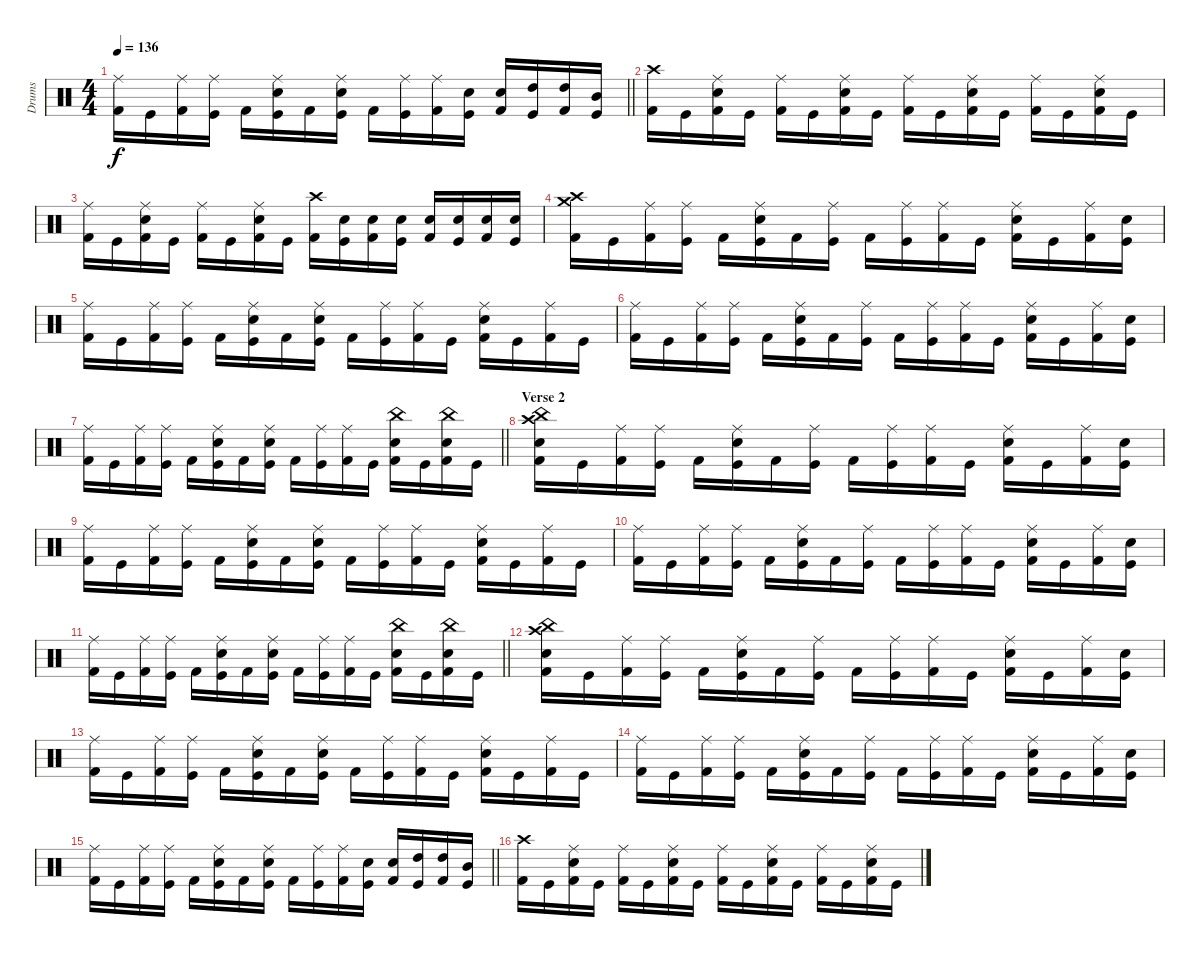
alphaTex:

\track ("Drums" "Drums") {instrument percussion}
\staff {score}
\articulation defaults
\ts (4 4)
\tempo 136
\clef neutral
\barLineRight lightlight
\ks c
("Kick (hit) 2" "Ride (middle)").16{dy f} "Kick (hit)".16 ("Kick (hit) 2" "Ride (middle)").16 ("Kick (hit)" "Ride (middle)").16 "Kick (hit) 2".16 ("Kick (hit)" "Snare (hit) 2" "Ride (middle)").16 "Kick (hit) 2".16 ("Kick (hit)" "Snare (hit) 2" "Ride (middle)").16 "Kick (hit) 2".16 ("Kick (hit)" "Ride (middle)").16 ("Kick (hit) 2" "Ride (middle)").16 ("Kick (hit)" "Snare (hit) 2").16 ("Kick (hit) 2" "Snare (hit) 2").16 ("Kick (hit)" "High Tom (hit)").16 ("Kick (hit) 2" "High Tom (hit)").16 ("Kick (hit)" "Mid Tom (hit)").16 |
("Kick (hit) 2" "Crash high (hit)").16 "Kick (hit)".16 ("Kick (hit) 2" "Snare (hit) 2" "Ride (middle)").16 "Kick (hit)".16 ("Kick (hit) 2" "Ride (middle)").16 "Kick (hit)".16 ("Kick (hit) 2" "Snare (hit) 2" "Ride (middle)").16 "Kick (hit)".16 ("Kick (hit) 2" "Ride (middle)").16 "Kick (hit)".16 ("Kick (hit) 2" "Snare (hit) 2" "Ride (middle)").16 "Kick (hit)".16 ("Kick (hit) 2" "Ride (middle)").16 "Kick (hit)".16 ("Kick (hit) 2" "Snare (hit) 2" "Ride (middle)").16 "Kick (hit)".16 |
("Kick (hit) 2" "Ride (middle)").16 "Kick (hit)".16 ("Kick (hit) 2" "Snare (hit) 2" "Ride (middle)").16 "Kick (hit)".16 ("Kick (hit) 2" "Ride (middle)").16 "Kick (hit)".16 ("Kick (hit) 2" "Snare (hit) 2" "Ride (middle)").16 "Kick (hit)".16 ("Kick (hit) 2" "Crash high (hit)").16 ("Kick (hit)" "Snare (hit) 2").16 ("Kick (hit) 2" "Snare (hit) 2").16 ("Kick (hit)" "Snare (hit) 2").16 ("Kick (hit) 2" "Snare (hit) 2").16 ("Kick (hit)" "Snare (hit) 2").16 ("Kick (hit) 2" "Snare (hit) 2").16 ("Kick (hit)" "Snare (hit) 2").16 |
("Kick (hit) 2" "Crash high (hit)" "Crash medium (hit)").16 "Kick (hit)".16 ("Kick (hit) 2" "Ride (middle)").16 ("Kick (hit)" "Ride (middle)").16 "Kick (hit) 2".16 ("Kick (hit)" "Snare (hit) 2" "Ride (middle)").16 "Kick (hit) 2".16 ("Kick (hit)" "Ride (middle)").16 "Kick (hit) 2".16 ("Kick (hit)" "Ride (middle)").16 ("Kick (hit) 2" "Ride (middle)").16 "Kick (hit)".16 ("Kick (hit) 2" "Snare (hit) 2" "Ride (middle)").16 "Kick (hit)".16 ("Kick (hit) 2" "Ride (middle)").16 ("Kick (hit)" "Snare (hit) 2").16 |
("Kick (hit) 2" "Ride (middle)").16 "Kick (hit)".16 ("Kick (hit) 2" "Ride (middle)").16 ("Kick (hit)" "Ride (middle)").16 "Kick (hit) 2".16 ("Kick (hit)" "Snare (hit) 2" "Ride (middle)").16 "Kick (hit) 2".16 ("Kick (hit)" "Snare (hit) 2" "Ride (middle)").16 "Kick (hit) 2".16 ("Kick (hit)" "Ride (middle)").16 ("Kick (hit) 2" "Ride (middle)").16 "Kick (hit)".16 ("Kick (hit) 2" "Snare (hit) 2" "Ride (middle)").16 "Kick (hit)".16 ("Kick (hit) 2" "Ride (middle)").16 "Kick (hit)".16 |
("Kick (hit) 2" "Ride (middle)").16 "Kick (hit)".16 ("Kick (hit) 2" "Ride (middle)").16 ("Kick (hit)" "Ride (middle)").16 "Kick (hit) 2".16 ("Kick (hit)" "Snare (hit) 2" "Ride (middle)").16 "Kick (hit) 2".16 ("Kick (hit)" "Ride (middle)").16 "Kick (hit) 2".16 ("Kick (hit)" "Ride (middle)").16 ("Kick (hit) 2" "Ride (middle)").16 "Kick (hit)".16 ("Kick (hit) 2" "Snare (hit) 2" "Ride (middle)").16 "Kick (hit)".16 ("Kick (hit) 2" "Ride (middle)").16 ("Kick (hit)" "Snare (hit) 2").16 |
\barLineRight lightlight
("Kick (hit) 2" "Ride (middle)").16 "Kick (hit)".16 ("Kick (hit) 2" "Ride (middle)").16 ("Kick (hit)" "Ride (middle)").16 "Kick (hit) 2".16 ("Kick (hit)" "Snare (hit) 2" "Ride (middle)").16 "Kick (hit) 2".16 ("Kick (hit)" "Snare (hit) 2" "Ride (middle)").16 "Kick (hit) 2".16 ("Kick (hit)" "Ride (middle)").16 ("Kick (hit) 2" "Ride (middle)").16 "Kick (hit)".16 ("Kick (hit) 2" "Snare (hit) 2" "China (hit)").16 "Kick (hit)".16 ("Kick (hit) 2" "Snare (hit) 2" "China (hit)").16 "Kick (hit)".16 |
\section ("" "Verse 2")
("Kick (hit) 2" "Snare (hit) 2" "Crash high (hit)" "China (hit)").16 "Kick (hit)".16 ("Kick (hit) 2" "Ride (middle)").16 ("Kick (hit)" "Ride (middle)").16 "Kick (hit) 2".16 ("Kick (hit)" "Snare (hit) 2" "Ride (middle)").16 "Kick (hit) 2".16 ("Kick (hit)" "Ride (middle)").16 "Kick (hit) 2".16 ("Kick (hit)" "Ride (middle)").16 ("Kick (hit) 2" "Ride (middle)").16 "Kick (hit)".16 ("Kick (hit) 2" "Snare (hit) 2" "Ride (middle)").16 "Kick (hit)".16 ("Kick (hit) 2" "Ride (middle)").16 ("Kick (hit)" "Snare (hit) 2").16 |
("Kick (hit) 2" "Ride (middle)").16 "Kick (hit)".16 ("Kick (hit) 2" "Ride (middle)").16 ("Kick (hit)" "Ride (middle)").16 "Kick (hit) 2".16 ("Kick (hit)" "Snare (hit) 2" "Ride (middle)").16 "Kick (hit) 2".16 ("Kick (hit)" "Snare (hit) 2" "Ride (middle)").16 "Kick (hit) 2".16 ("Kick (hit)" "Ride (middle)").16 ("Kick (hit) 2" "Ride (middle)").16 "Kick (hit)".16 ("Kick (hit) 2" "Snare (hit) 2" "Ride (middle)").16 "Kick (hit)".16 ("Kick (hit) 2" "Ride (middle)").16 "Kick (hit)".16 |
("Kick (hit) 2" "Ride (middle)").16 "Kick (hit)".16 ("Kick (hit) 2" "Ride (middle)").16 ("Kick (hit)" "Ride (middle)").16 "Kick (hit) 2".16 ("Kick (hit)" "Snare (hit) 2" "Ride (middle)").16 "Kick (hit) 2".16 ("Kick (hit)" "Ride (middle)").16 "Kick (hit) 2".16 ("Kick (hit)" "Ride (middle)").16 ("Kick (hit) 2" "Ride (middle)").16 "Kick (hit)".16 ("Kick (hit) 2" "Snare (hit) 2" "Ride (middle)").16 "Kick (hit)".16 ("Kick (hit) 2" "Ride (middle)").16 ("Kick (hit)" "Snare (hit) 2").16 |
\barLineRight lightlight
("Kick (hit) 2" "Ride (middle)").16 "Kick (hit)".16 ("Kick (hit) 2" "Ride (middle)").16 ("Kick (hit)" "Ride (middle)").16 "Kick (hit) 2".16 ("Kick (hit)" "Snare (hit) 2" "Ride (middle)").16 "Kick (hit) 2".16 ("Kick (hit)" "Snare (hit) 2" "Ride (middle)").16 "Kick (hit) 2".16 ("Kick (hit)" "Ride (middle)").16 ("Kick (hit) 2" "Ride (middle)").16 "Kick (hit)".16 ("Kick (hit) 2" "Snare (hit) 2" "China (hit)").16 "Kick (hit)".16 ("Kick (hit) 2" "Snare (hit) 2" "China (hit)").16 "Kick (hit)".16 |
("Kick (hit) 2" "Snare (hit) 2" "Crash high (hit)" "China (hit)").16 "Kick (hit)".16 ("Kick (hit) 2" "Ride (middle)").16 ("Kick (hit)" "Ride (middle)").16 "Kick (hit) 2".16 ("Kick (hit)" "Snare (hit) 2" "Ride (middle)").16 "Kick (hit) 2".16 ("Kick (hit)" "Ride (middle)").16 "Kick (hit) 2".16 ("Kick (hit)" "Ride (middle)").16 ("Kick (hit) 2" "Ride (middle)").16 "Kick (hit)".16 ("Kick (hit) 2" "Snare (hit) 2" "Ride (middle)").16 "Kick (hit)".16 ("Kick (hit) 2" "Ride (middle)").16 ("Kick (hit)" "Snare (hit) 2").16 |
("Kick (hit) 2" "Ride (middle)").16 "Kick (hit)".16 ("Kick (hit) 2" "Ride (middle)").16 ("Kick (hit)" "Ride (middle)").16 "Kick (hit) 2".16 ("Kick (hit)" "Snare (hit) 2" "Ride (middle)").16 "Kick (hit) 2".16 ("Kick (hit)" "Snare (hit) 2" "Ride (middle)").16 "Kick (hit) 2".16 ("Kick (hit)" "Ride (middle)").16 ("Kick (hit) 2" "Ride (middle)").16 "Kick (hit)".16 ("Kick (hit) 2" "Snare (hit) 2" "Ride (middle)").16 "Kick (hit)".16 ("Kick (hit) 2" "Ride (middle)").16 "Kick (hit)".16 |
("Kick (hit) 2" "Ride (middle)").16 "Kick (hit)".16 ("Kick (hit) 2" "Ride (middle)").16 ("Kick (hit)" "Ride (middle)").16 "Kick (hit) 2".16 ("Kick (hit)" "Snare (hit) 2" "Ride (middle)").16 "Kick (hit) 2".16 ("Kick (hit)" "Ride (middle)").16 "Kick (hit) 2".16 ("Kick (hit)" "Ride (middle)").16 ("Kick (hit) 2" "Ride (middle)").16 "Kick (hit)".16 ("Kick (hit) 2" "Snare (hit) 2" "Ride (middle)").16 "Kick (hit)".16 ("Kick (hit) 2" "Ride (middle)").16 ("Kick (hit)" "Snare (hit) 2").16 |
\barLineRight lightlight
("Kick (hit) 2" "Ride (middle)").16 "Kick (hit)".16 ("Kick (hit) 2" "Ride (middle)").16 ("Kick (hit)" "Ride (middle)").16 "Kick (hit) 2".16 ("Kick (hit)" "Snare (hit) 2" "Ride (middle)").16 "Kick (hit) 2".16 ("Kick (hit)" "Snare (hit) 2" "Ride (middle)").16 "Kick (hit) 2".16 ("Kick (hit)" "Ride (middle)").16 ("Kick (hit) 2" "Ride (middle)").16 ("Kick (hit)" "Snare (hit) 2").16 ("Kick (hit) 2" "Snare (hit) 2").16 ("Kick (hit)" "High Tom (hit)").16 ("Kick (hit) 2" "High Tom (hit)").16 ("Kick (hit)" "Mid Tom (hit)").16 |
("Kick (hit) 2" "Crash high (hit)").16 "Kick (hit)".16 ("Kick (hit) 2" "Snare (hit) 2" "Ride (middle)").16 "Kick (hit)".16 ("Kick (hit) 2" "Ride (middle)").16 "Kick (hit)".16 ("Kick (hit) 2" "Snare (hit) 2" "Ride (middle)").16 "Kick (hit)".16 ("Kick (hit) 2" "Ride (middle)").16 "Kick (hit)".16 ("Kick (hit) 2" "Snare (hit) 2" "Ride (middle)").16 "Kick (hit)".16 ("Kick (hit) 2" "Ride (middle)").16 "Kick (hit)".16 ("Kick (hit) 2" "Snare (hit) 2" "Ride (middle)").16 "Kick (hit)".16
